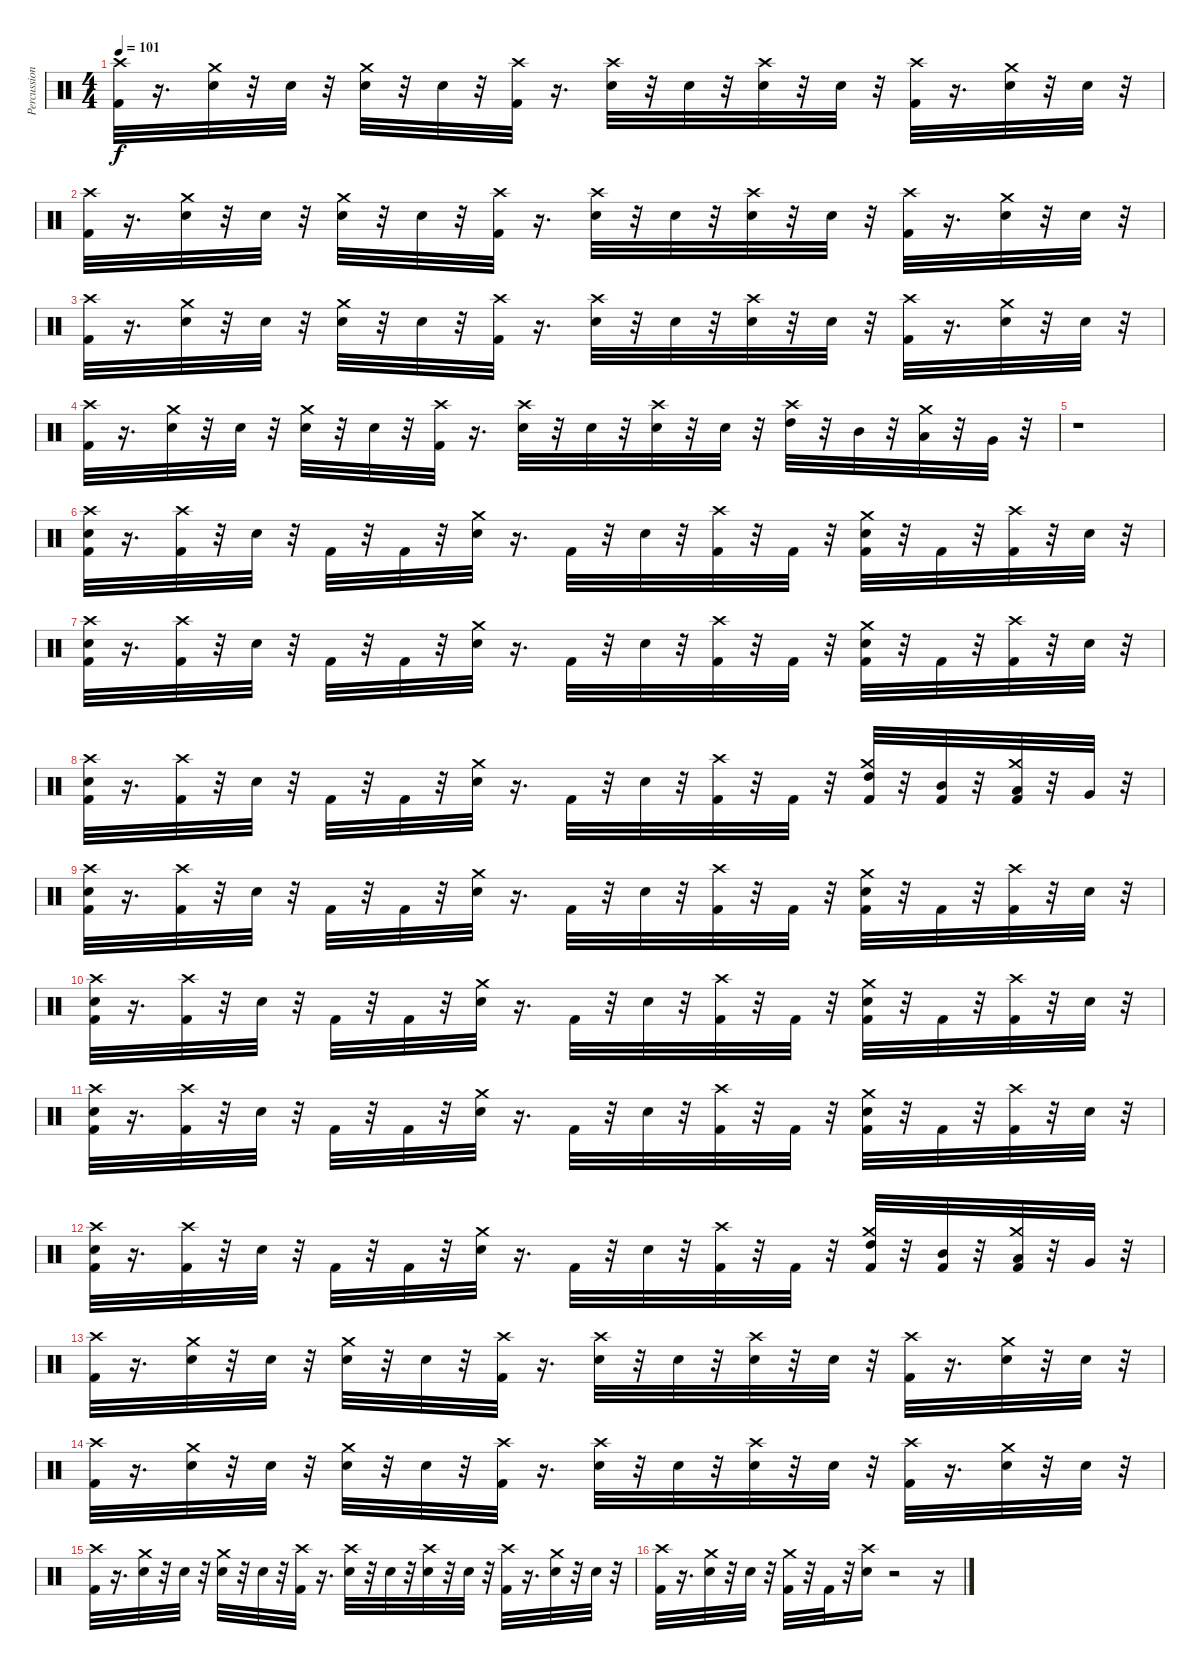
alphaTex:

\track ("Percussion" "Percussion") {instrument percussion}
\staff {score}
\articulation defaults
\ts (4 4)
\tempo 101
\clef neutral
\ks c
("Crash high (hit)" "Kick (hit) 2").32{dy f} r.16{d} ("Crash medium (hit)" "Snare (hit) 2").32 r.32 "Snare (hit) 2".32 r.32 ("Crash medium (hit)" "Snare (hit) 2").32 r.32 "Snare (hit) 2".32 r.32 ("Crash high (hit)" "Kick (hit) 2").32 r.16{d} ("Crash high (hit)" "Snare (hit) 2").32 r.32 "Snare (hit) 2".32 r.32 ("Crash high (hit)" "Snare (hit) 2").32 r.32 "Snare (hit) 2".32 r.32 ("Crash high (hit)" "Kick (hit) 2").32 r.16{d} ("Crash medium (hit)" "Snare (hit) 2").32 r.32 "Snare (hit) 2".32 r.32 |
("Crash high (hit)" "Kick (hit) 2").32 r.16{d} ("Crash medium (hit)" "Snare (hit) 2").32 r.32 "Snare (hit) 2".32 r.32 ("Crash medium (hit)" "Snare (hit) 2").32 r.32 "Snare (hit) 2".32 r.32 ("Crash high (hit)" "Kick (hit) 2").32 r.16{d} ("Crash high (hit)" "Snare (hit) 2").32 r.32 "Snare (hit) 2".32 r.32 ("Crash high (hit)" "Snare (hit) 2").32 r.32 "Snare (hit) 2".32 r.32 ("Crash high (hit)" "Kick (hit) 2").32 r.16{d} ("Crash medium (hit)" "Snare (hit) 2").32 r.32 "Snare (hit) 2".32 r.32 |
("Crash high (hit)" "Kick (hit) 2").32 r.16{d} ("Crash medium (hit)" "Snare (hit) 2").32 r.32 "Snare (hit) 2".32 r.32 ("Crash medium (hit)" "Snare (hit) 2").32 r.32 "Snare (hit) 2".32 r.32 ("Crash high (hit)" "Kick (hit) 2").32 r.16{d} ("Crash high (hit)" "Snare (hit) 2").32 r.32 "Snare (hit) 2".32 r.32 ("Crash high (hit)" "Snare (hit) 2").32 r.32 "Snare (hit) 2".32 r.32 ("Crash high (hit)" "Kick (hit) 2").32 r.16{d} ("Crash medium (hit)" "Snare (hit) 2").32 r.32 "Snare (hit) 2".32 r.32 |
("Crash high (hit)" "Kick (hit) 2").32 r.16{d} ("Crash medium (hit)" "Snare (hit) 2").32 r.32 "Snare (hit) 2".32 r.32 ("Crash medium (hit)" "Snare (hit) 2").32 r.32 "Snare (hit) 2".32 r.32 ("Crash high (hit)" "Kick (hit) 2").32 r.16{d} ("Crash high (hit)" "Snare (hit) 2").32 r.32 "Snare (hit) 2".32 r.32 ("Crash high (hit)" "Snare (hit) 2").32 r.32 "Snare (hit) 2".32 r.32 ("Crash high (hit)" "High Tom (hit)").32 r.32 "Mid Tom (hit)".32 r.32 ("Crash medium (hit)" "Low Tom (hit)").32 r.32 "Very Low Tom (hit)".32 r.32 |
r.1 |
("Crash high (hit)" "Snare (hit) 2" "Kick (hit) 2").32 r.16{d} ("Crash high (hit)" "Kick (hit) 2").32 r.32 "Snare (hit) 2".32 r.32 "Kick (hit) 2".32 r.32 "Kick (hit) 2".32 r.32 ("Crash medium (hit)" "Snare (hit) 2").32 r.16{d} "Kick (hit) 2".32 r.32 "Snare (hit) 2".32 r.32 ("Crash high (hit)" "Kick (hit) 2").32 r.32 "Kick (hit) 2".32 r.32 ("Crash medium (hit)" "Snare (hit) 2" "Kick (hit) 2").32 r.32 "Kick (hit) 2".32 r.32 ("Crash high (hit)" "Kick (hit) 2").32 r.32 "Snare (hit) 2".32 r.32 |
("Crash high (hit)" "Snare (hit) 2" "Kick (hit) 2").32 r.16{d} ("Crash high (hit)" "Kick (hit) 2").32 r.32 "Snare (hit) 2".32 r.32 "Kick (hit) 2".32 r.32 "Kick (hit) 2".32 r.32 ("Crash medium (hit)" "Snare (hit) 2").32 r.16{d} "Kick (hit) 2".32 r.32 "Snare (hit) 2".32 r.32 ("Crash high (hit)" "Kick (hit) 2").32 r.32 "Kick (hit) 2".32 r.32 ("Crash medium (hit)" "Snare (hit) 2" "Kick (hit) 2").32 r.32 "Kick (hit) 2".32 r.32 ("Crash high (hit)" "Kick (hit) 2").32 r.32 "Snare (hit) 2".32 r.32 |
("Crash high (hit)" "Snare (hit) 2" "Kick (hit) 2").32 r.16{d} ("Crash high (hit)" "Kick (hit) 2").32 r.32 "Snare (hit) 2".32 r.32 "Kick (hit) 2".32 r.32 "Kick (hit) 2".32 r.32 ("Crash medium (hit)" "Snare (hit) 2").32 r.16{d} "Kick (hit) 2".32 r.32 "Snare (hit) 2".32 r.32 ("Crash high (hit)" "Kick (hit) 2").32 r.32 "Kick (hit) 2".32 r.32 ("Crash medium (hit)" "High Tom (hit)" "Kick (hit) 2").32 r.32 ("Mid Tom (hit)" "Kick (hit) 2").32 r.32 ("Crash medium (hit)" "Low Tom (hit)" "Kick (hit) 2").32 r.32 "Very Low Tom (hit)".32 r.32 |
("Crash high (hit)" "Snare (hit) 2" "Kick (hit) 2").32 r.16{d} ("Crash high (hit)" "Kick (hit) 2").32 r.32 "Snare (hit) 2".32 r.32 "Kick (hit) 2".32 r.32 "Kick (hit) 2".32 r.32 ("Crash medium (hit)" "Snare (hit) 2").32 r.16{d} "Kick (hit) 2".32 r.32 "Snare (hit) 2".32 r.32 ("Crash high (hit)" "Kick (hit) 2").32 r.32 "Kick (hit) 2".32 r.32 ("Crash medium (hit)" "Snare (hit) 2" "Kick (hit) 2").32 r.32 "Kick (hit) 2".32 r.32 ("Crash high (hit)" "Kick (hit) 2").32 r.32 "Snare (hit) 2".32 r.32 |
("Crash high (hit)" "Snare (hit) 2" "Kick (hit) 2").32 r.16{d} ("Crash high (hit)" "Kick (hit) 2").32 r.32 "Snare (hit) 2".32 r.32 "Kick (hit) 2".32 r.32 "Kick (hit) 2".32 r.32 ("Crash medium (hit)" "Snare (hit) 2").32 r.16{d} "Kick (hit) 2".32 r.32 "Snare (hit) 2".32 r.32 ("Crash high (hit)" "Kick (hit) 2").32 r.32 "Kick (hit) 2".32 r.32 ("Crash medium (hit)" "Snare (hit) 2" "Kick (hit) 2").32 r.32 "Kick (hit) 2".32 r.32 ("Crash high (hit)" "Kick (hit) 2").32 r.32 "Snare (hit) 2".32 r.32 |
("Crash high (hit)" "Snare (hit) 2" "Kick (hit) 2").32 r.16{d} ("Crash high (hit)" "Kick (hit) 2").32 r.32 "Snare (hit) 2".32 r.32 "Kick (hit) 2".32 r.32 "Kick (hit) 2".32 r.32 ("Crash medium (hit)" "Snare (hit) 2").32 r.16{d} "Kick (hit) 2".32 r.32 "Snare (hit) 2".32 r.32 ("Crash high (hit)" "Kick (hit) 2").32 r.32 "Kick (hit) 2".32 r.32 ("Crash medium (hit)" "Snare (hit) 2" "Kick (hit) 2").32 r.32 "Kick (hit) 2".32 r.32 ("Crash high (hit)" "Kick (hit) 2").32 r.32 "Snare (hit) 2".32 r.32 |
("Crash high (hit)" "Snare (hit) 2" "Kick (hit) 2").32 r.16{d} ("Crash high (hit)" "Kick (hit) 2").32 r.32 "Snare (hit) 2".32 r.32 "Kick (hit) 2".32 r.32 "Kick (hit) 2".32 r.32 ("Crash medium (hit)" "Snare (hit) 2").32 r.16{d} "Kick (hit) 2".32 r.32 "Snare (hit) 2".32 r.32 ("Crash high (hit)" "Kick (hit) 2").32 r.32 "Kick (hit) 2".32 r.32 ("Crash medium (hit)" "High Tom (hit)" "Kick (hit) 2").32 r.32 ("Mid Tom (hit)" "Kick (hit) 2").32 r.32 ("Crash medium (hit)" "Low Tom (hit)" "Kick (hit) 2").32 r.32 "Very Low Tom (hit)".32 r.32 |
("Crash high (hit)" "Kick (hit) 2").32 r.16{d} ("Crash medium (hit)" "Snare (hit) 2").32 r.32 "Snare (hit) 2".32 r.32 ("Crash medium (hit)" "Snare (hit) 2").32 r.32 "Snare (hit) 2".32 r.32 ("Crash high (hit)" "Kick (hit) 2").32 r.16{d} ("Crash high (hit)" "Snare (hit) 2").32 r.32 "Snare (hit) 2".32 r.32 ("Crash high (hit)" "Snare (hit) 2").32 r.32 "Snare (hit) 2".32 r.32 ("Crash high (hit)" "Kick (hit) 2").32 r.16{d} ("Crash medium (hit)" "Snare (hit) 2").32 r.32 "Snare (hit) 2".32 r.32 |
("Crash high (hit)" "Kick (hit) 2").32 r.16{d} ("Crash medium (hit)" "Snare (hit) 2").32 r.32 "Snare (hit) 2".32 r.32 ("Crash medium (hit)" "Snare (hit) 2").32 r.32 "Snare (hit) 2".32 r.32 ("Crash high (hit)" "Kick (hit) 2").32 r.16{d} ("Crash high (hit)" "Snare (hit) 2").32 r.32 "Snare (hit) 2".32 r.32 ("Crash high (hit)" "Snare (hit) 2").32 r.32 "Snare (hit) 2".32 r.32 ("Crash high (hit)" "Kick (hit) 2").32 r.16{d} ("Crash medium (hit)" "Snare (hit) 2").32 r.32 "Snare (hit) 2".32 r.32 |
("Crash high (hit)" "Kick (hit) 2").32 r.16{d} ("Crash medium (hit)" "Snare (hit) 2").32 r.32 "Snare (hit) 2".32 r.32 ("Crash medium (hit)" "Snare (hit) 2").32 r.32 "Snare (hit) 2".32 r.32 ("Crash high (hit)" "Kick (hit) 2").32 r.16{d} ("Crash high (hit)" "Snare (hit) 2").32 r.32 "Snare (hit) 2".32 r.32 ("Crash high (hit)" "Snare (hit) 2").32 r.32 "Snare (hit) 2".32 r.32 ("Crash high (hit)" "Kick (hit) 2").32 r.16{d} ("Crash medium (hit)" "Snare (hit) 2").32 r.32 "Snare (hit) 2".32 r.32 |
("Crash high (hit)" "Kick (hit) 2").32 r.16{d} ("Crash medium (hit)" "Snare (hit) 2").32 r.32 "Snare (hit) 2".32 r.32 ("Crash medium (hit)" "Kick (hit) 2").32 r.32 "Kick (hit) 2".32 r.32 ("Crash high (hit)" "Snare (hit) 2").16 r.2 r.16
